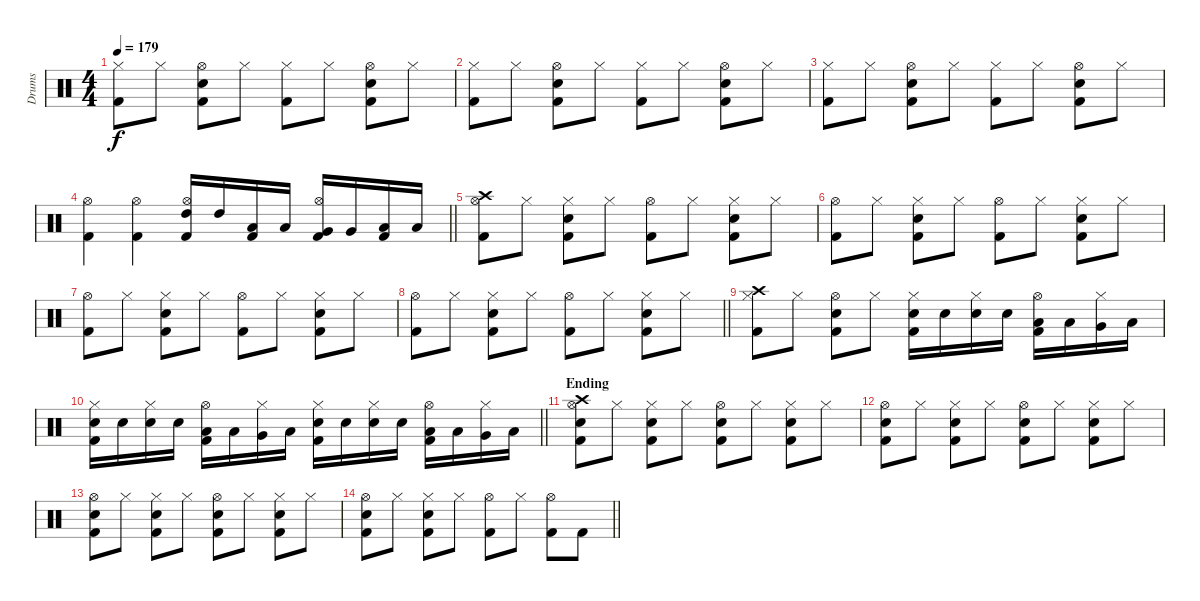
\track ("Drums" "Drums") {instrument percussion}
\staff {score}
\articulation defaults
\ts (4 4)
\tempo 179
\clef neutral
\ks c
("Hi-Hat (closed)" "Kick (hit) 2").8{dy f} "Hi-Hat (closed)".8 ("Hi-Hat (open)" "Snare (hit) 2" "Kick (hit) 2").8 "Hi-Hat (closed)".8 ("Hi-Hat (closed)" "Kick (hit) 2").8 "Hi-Hat (closed)".8 ("Hi-Hat (open)" "Snare (hit) 2" "Kick (hit) 2").8 "Hi-Hat (closed)".8 |
("Hi-Hat (closed)" "Kick (hit) 2").8 "Hi-Hat (closed)".8 ("Hi-Hat (open)" "Snare (hit) 2" "Kick (hit) 2").8 "Hi-Hat (closed)".8 ("Hi-Hat (closed)" "Kick (hit) 2").8 "Hi-Hat (closed)".8 ("Hi-Hat (open)" "Snare (hit) 2" "Kick (hit) 2").8 "Hi-Hat (closed)".8 |
("Hi-Hat (closed)" "Kick (hit) 2").8 "Hi-Hat (closed)".8 ("Hi-Hat (open)" "Snare (hit) 2" "Kick (hit) 2").8 "Hi-Hat (closed)".8 ("Hi-Hat (closed)" "Kick (hit) 2").8 "Hi-Hat (closed)".8 ("Hi-Hat (open)" "Snare (hit) 2" "Kick (hit) 2").8 "Hi-Hat (closed)".8 |
\barLineRight lightlight
("Hi-Hat (open)" "Kick (hit) 2").4 ("Hi-Hat (open)" "Kick (hit) 2").4 ("Hi-Hat (open)" "High Tom (hit)" "Kick (hit) 2").16 "High Tom (hit)".16 ("Low Tom (hit)" "Kick (hit) 2").16 "Low Tom (hit)".16 ("Hi-Hat (open)" "Very Low Tom (hit)" "Kick (hit) 2").16 "Very Low Tom (hit)".16 ("Low Floor Tom (hit)" "Kick (hit) 2").16 "Low Floor Tom (hit)".16 |
("Hi-Hat (open)" "Crash high (hit)" "Kick (hit) 2").8 "Hi-Hat (closed)".8 ("Hi-Hat (closed)" "Snare (hit) 2" "Kick (hit) 2").8 "Hi-Hat (closed)".8 ("Hi-Hat (open)" "Kick (hit) 2").8 "Hi-Hat (closed)".8 ("Hi-Hat (closed)" "Snare (hit) 2" "Kick (hit) 2").8 "Hi-Hat (closed)".8 |
("Hi-Hat (open)" "Kick (hit) 2").8 "Hi-Hat (closed)".8 ("Hi-Hat (closed)" "Snare (hit) 2" "Kick (hit) 2").8 "Hi-Hat (closed)".8 ("Hi-Hat (open)" "Kick (hit) 2").8 "Hi-Hat (closed)".8 ("Hi-Hat (closed)" "Snare (hit) 2" "Kick (hit) 2").8 "Hi-Hat (closed)".8 |
("Hi-Hat (open)" "Kick (hit) 2").8 "Hi-Hat (closed)".8 ("Hi-Hat (closed)" "Snare (hit) 2" "Kick (hit) 2").8 "Hi-Hat (closed)".8 ("Hi-Hat (open)" "Kick (hit) 2").8 "Hi-Hat (closed)".8 ("Hi-Hat (closed)" "Snare (hit) 2" "Kick (hit) 2").8 "Hi-Hat (closed)".8 |
\barLineRight lightlight
("Hi-Hat (open)" "Kick (hit) 2").8 "Hi-Hat (closed)".8 ("Hi-Hat (closed)" "Snare (hit) 2" "Kick (hit) 2").8 "Hi-Hat (closed)".8 ("Hi-Hat (open)" "Kick (hit) 2").8 "Hi-Hat (closed)".8 ("Hi-Hat (closed)" "Snare (hit) 2" "Kick (hit) 2").8 "Hi-Hat (closed)".8 |
("Hi-Hat (closed)" "Crash high (hit)" "Kick (hit) 2").8 "Hi-Hat (closed)".8 ("Hi-Hat (open)" "Snare (hit) 2" "Kick (hit) 2").8 "Hi-Hat (closed)".8 ("Hi-Hat (closed)" "Snare (hit) 2" "Kick (hit) 2").16 "Snare (hit) 2".16 ("Hi-Hat (closed)" "Snare (hit) 2").16 "Snare (hit) 2".16 ("Hi-Hat (open)" "Low Tom (hit)" "Kick (hit) 2").16 "Low Tom (hit)".16 ("Hi-Hat (closed)" "Very Low Tom (hit)").16 "Low Floor Tom (hit)".16 |
\barLineRight lightlight
("Hi-Hat (closed)" "Snare (hit) 2" "Kick (hit) 2").16 "Snare (hit) 2".16 ("Hi-Hat (closed)" "Snare (hit) 2").16 "Snare (hit) 2".16 ("Hi-Hat (open)" "Low Tom (hit)" "Kick (hit) 2").16 "Low Tom (hit)".16 ("Hi-Hat (closed)" "Very Low Tom (hit)").16 "Low Floor Tom (hit)".16 ("Hi-Hat (closed)" "Snare (hit) 2" "Kick (hit) 2").16 "Snare (hit) 2".16 ("Hi-Hat (closed)" "Snare (hit) 2").16 "Snare (hit) 2".16 ("Hi-Hat (open)" "Low Tom (hit)" "Kick (hit) 2").16 "Low Tom (hit)".16 ("Hi-Hat (closed)" "Very Low Tom (hit)").16 "Low Floor Tom (hit)".16 |
\section ("" "Ending")
("Hi-Hat (open)" "Snare (hit) 2" "Crash high (hit)" "Kick (hit) 2").8 "Hi-Hat (closed)".8 ("Hi-Hat (closed)" "Snare (hit) 2" "Kick (hit) 2").8 "Hi-Hat (closed)".8 ("Hi-Hat (open)" "Snare (hit) 2" "Kick (hit) 2").8 "Hi-Hat (closed)".8 ("Hi-Hat (closed)" "Snare (hit) 2" "Kick (hit) 2").8 "Hi-Hat (closed)".8 |
("Hi-Hat (open)" "Snare (hit) 2" "Kick (hit) 2").8 "Hi-Hat (closed)".8 ("Hi-Hat (closed)" "Snare (hit) 2" "Kick (hit) 2").8 "Hi-Hat (closed)".8 ("Hi-Hat (open)" "Snare (hit) 2" "Kick (hit) 2").8 "Hi-Hat (closed)".8 ("Hi-Hat (closed)" "Snare (hit) 2" "Kick (hit) 2").8 "Hi-Hat (closed)".8 |
("Hi-Hat (open)" "Snare (hit) 2" "Kick (hit) 2").8 "Hi-Hat (closed)".8 ("Hi-Hat (closed)" "Snare (hit) 2" "Kick (hit) 2").8 "Hi-Hat (closed)".8 ("Hi-Hat (open)" "Snare (hit) 2" "Kick (hit) 2").8 "Hi-Hat (closed)".8 ("Hi-Hat (closed)" "Snare (hit) 2" "Kick (hit) 2").8 "Hi-Hat (closed)".8 |
\barLineRight lightlight
("Hi-Hat (open)" "Snare (hit) 2" "Kick (hit) 2").8 "Hi-Hat (closed)".8 ("Hi-Hat (closed)" "Snare (hit) 2" "Kick (hit) 2").8 "Hi-Hat (closed)".8 ("Hi-Hat (open)" "Kick (hit) 2").8 "Hi-Hat (closed)".8 ("Hi-Hat (open)" "Kick (hit) 2").8 "Kick (hit) 2".8
